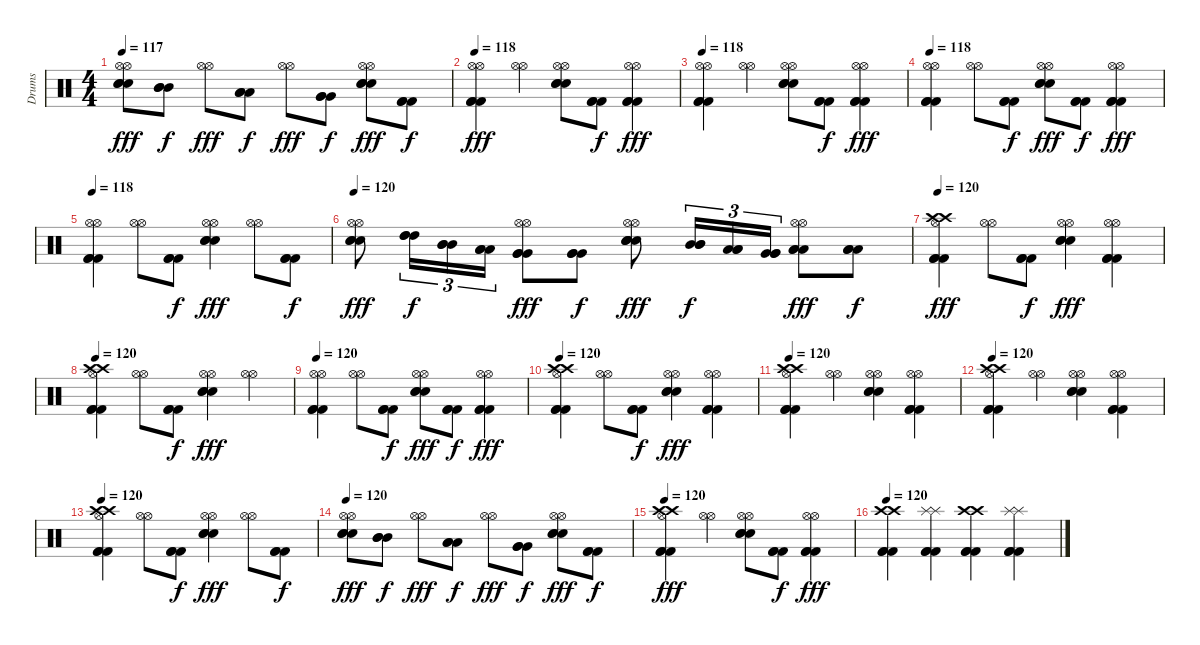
\track ("Drums" "Drums") {instrument percussion}
\staff {score}
\articulation defaults
\ts (4 4)
\tempo 117
\clef neutral
\ks c
("Hi-Hat (open)" "Hi-Hat (open)" "Snare (hit) 2" "Snare (hit) 2" "Snare (hit) 2").8{dy fff} ("Mid Tom (hit)" "Mid Tom (hit)" "Mid Tom (hit)").8{dy f} ("Hi-Hat (open)" "Hi-Hat (open)").8{dy fff} ("Low Tom (hit)" "Low Tom (hit)" "Low Tom (hit)").8{dy f} ("Hi-Hat (open)" "Hi-Hat (open)").8{dy fff} ("Very Low Tom (hit)" "Very Low Tom (hit)" "Very Low Tom (hit)").8{dy f} ("Hi-Hat (open)" "Hi-Hat (open)" "Snare (hit) 2" "Snare (hit) 2" "Snare (hit) 2").8{dy fff} ("Kick (hit) 2" "Kick (hit) 2" "Kick (hit) 2").8{dy f} |
\tempo 118
("Hi-Hat (open)" "Hi-Hat (open)" "Kick (hit) 2" "Kick (hit) 2" "Kick (hit) 2").4{dy fff} ("Hi-Hat (open)" "Hi-Hat (open)").4 ("Hi-Hat (open)" "Hi-Hat (open)" "Snare (hit) 2" "Snare (hit) 2" "Snare (hit) 2").8 ("Kick (hit) 2" "Kick (hit) 2" "Kick (hit) 2").8{dy f} ("Hi-Hat (open)" "Hi-Hat (open)" "Kick (hit) 2" "Kick (hit) 2" "Kick (hit) 2").4{dy fff} |
\tempo 118
("Hi-Hat (open)" "Hi-Hat (open)" "Kick (hit) 2" "Kick (hit) 2" "Kick (hit) 2").4 ("Hi-Hat (open)" "Hi-Hat (open)").4 ("Hi-Hat (open)" "Hi-Hat (open)" "Snare (hit) 2" "Snare (hit) 2" "Snare (hit) 2").8 ("Kick (hit) 2" "Kick (hit) 2" "Kick (hit) 2").8{dy f} ("Hi-Hat (open)" "Hi-Hat (open)" "Kick (hit) 2" "Kick (hit) 2" "Kick (hit) 2").4{dy fff} |
\tempo 118
("Hi-Hat (open)" "Hi-Hat (open)" "Kick (hit) 2" "Kick (hit) 2" "Kick (hit) 2").4 ("Hi-Hat (open)" "Hi-Hat (open)").8 ("Kick (hit) 2" "Kick (hit) 2" "Kick (hit) 2").8{dy f} ("Hi-Hat (open)" "Hi-Hat (open)" "Snare (hit) 2" "Snare (hit) 2" "Snare (hit) 2").8{dy fff} ("Kick (hit) 2" "Kick (hit) 2" "Kick (hit) 2").8{dy f} ("Hi-Hat (open)" "Hi-Hat (open)" "Kick (hit) 2" "Kick (hit) 2" "Kick (hit) 2").4{dy fff} |
\tempo 118
("Hi-Hat (open)" "Hi-Hat (open)" "Kick (hit) 2" "Kick (hit) 2" "Kick (hit) 2").4 ("Hi-Hat (open)" "Hi-Hat (open)").8 ("Kick (hit) 2" "Kick (hit) 2" "Kick (hit) 2").8{dy f} ("Hi-Hat (open)" "Hi-Hat (open)" "Snare (hit) 2" "Snare (hit) 2" "Snare (hit) 2").4{dy fff} ("Hi-Hat (open)" "Hi-Hat (open)").8 ("Kick (hit) 2" "Kick (hit) 2" "Kick (hit) 2").8{dy f} |
\tempo 120
("Hi-Hat (open)" "Hi-Hat (open)" "Snare (hit) 2" "Snare (hit) 2" "Snare (hit) 2").8{dy fff} ("High Tom (hit)" "High Tom (hit)" "High Tom (hit)").16{tu (3 2) dy f} ("Mid Tom (hit)" "Mid Tom (hit)" "Mid Tom (hit)").16{tu (3 2)} ("Low Tom (hit)" "Low Tom (hit)" "Low Tom (hit)").16{tu (3 2)} ("Hi-Hat (open)" "Hi-Hat (open)" "Very Low Tom (hit)" "Very Low Tom (hit)" "Very Low Tom (hit)").8{dy fff} ("Very Low Tom (hit)" "Very Low Tom (hit)" "Very Low Tom (hit)").8{dy f} ("Hi-Hat (open)" "Hi-Hat (open)" "Snare (hit) 2" "Snare (hit) 2" "Snare (hit) 2" "Snare (hit) 2").8{dy fff} ("Mid Tom (hit)" "Mid Tom (hit)" "Mid Tom (hit)").16{tu (3 2) dy f} ("Low Tom (hit)" "Low Tom (hit)" "Low Tom (hit)").16{tu (3 2)} ("Very Low Tom (hit)" "Very Low Tom (hit)" "Very Low Tom (hit)").16{tu (3 2)} ("Hi-Hat (open)" "Hi-Hat (open)" "Low Floor Tom (hit)" "Low Floor Tom (hit)" "Low Floor Tom (hit)").8{dy fff} ("Low Floor Tom (hit)" "Low Floor Tom (hit)" "Low Floor Tom (hit)").8{dy f} |
\tempo 120
("Hi-Hat (open)" "Crash high (hit)" "Crash high (hit)" "Kick (hit) 2" "Kick (hit) 2" "Kick (hit) 2").4{dy fff} ("Hi-Hat (open)" "Hi-Hat (open)").8 ("Kick (hit) 2" "Kick (hit) 2" "Kick (hit) 2").8{dy f} ("Hi-Hat (open)" "Hi-Hat (open)" "Snare (hit) 2" "Snare (hit) 2" "Snare (hit) 2").4{dy fff} ("Hi-Hat (open)" "Hi-Hat (open)" "Kick (hit) 2" "Kick (hit) 2" "Kick (hit) 2").4 |
\tempo 120
("Hi-Hat (open)" "Crash high (hit)" "Crash high (hit)" "Kick (hit) 2" "Kick (hit) 2" "Kick (hit) 2").4 ("Hi-Hat (open)" "Hi-Hat (open)").8 ("Kick (hit) 2" "Kick (hit) 2" "Kick (hit) 2").8{dy f} ("Hi-Hat (open)" "Hi-Hat (open)" "Snare (hit) 2" "Snare (hit) 2" "Snare (hit) 2").4{dy fff} ("Hi-Hat (open)" "Hi-Hat (open)").4 |
\tempo 120
("Hi-Hat (open)" "Hi-Hat (open)" "Kick (hit) 2" "Kick (hit) 2" "Kick (hit) 2").4 ("Hi-Hat (open)" "Hi-Hat (open)").8 ("Kick (hit) 2" "Kick (hit) 2" "Kick (hit) 2").8{dy f} ("Hi-Hat (open)" "Hi-Hat (open)" "Snare (hit) 2" "Snare (hit) 2" "Snare (hit) 2").8{dy fff} ("Kick (hit) 2" "Kick (hit) 2" "Kick (hit) 2").8{dy f} ("Hi-Hat (open)" "Hi-Hat (open)" "Kick (hit) 2" "Kick (hit) 2" "Kick (hit) 2").4{dy fff} |
\tempo 120
("Hi-Hat (open)" "Crash high (hit)" "Crash high (hit)" "Kick (hit) 2" "Kick (hit) 2" "Kick (hit) 2").4 ("Hi-Hat (open)" "Hi-Hat (open)").8 ("Kick (hit) 2" "Kick (hit) 2" "Kick (hit) 2").8{dy f} ("Hi-Hat (open)" "Hi-Hat (open)" "Snare (hit) 2" "Snare (hit) 2" "Snare (hit) 2").4{dy fff} ("Hi-Hat (open)" "Hi-Hat (open)" "Kick (hit) 2" "Kick (hit) 2" "Kick (hit) 2").4 |
\tempo 120
("Hi-Hat (open)" "Crash high (hit)" "Crash high (hit)" "Kick (hit) 2" "Kick (hit) 2" "Kick (hit) 2").4 ("Hi-Hat (open)" "Hi-Hat (open)").4 ("Hi-Hat (open)" "Hi-Hat (open)" "Snare (hit) 2" "Snare (hit) 2" "Snare (hit) 2").4 ("Hi-Hat (open)" "Hi-Hat (open)" "Kick (hit) 2" "Kick (hit) 2" "Kick (hit) 2").4 |
\tempo 120
("Hi-Hat (open)" "Crash high (hit)" "Crash high (hit)" "Kick (hit) 2" "Kick (hit) 2" "Kick (hit) 2").4 ("Hi-Hat (open)" "Hi-Hat (open)").4 ("Hi-Hat (open)" "Hi-Hat (open)" "Snare (hit) 2" "Snare (hit) 2" "Snare (hit) 2").4 ("Hi-Hat (open)" "Hi-Hat (open)" "Kick (hit) 2" "Kick (hit) 2" "Kick (hit) 2").4 |
\tempo 120
("Hi-Hat (open)" "Crash high (hit)" "Crash high (hit)" "Kick (hit) 2" "Kick (hit) 2" "Kick (hit) 2").4 ("Hi-Hat (open)" "Hi-Hat (open)").8 ("Kick (hit) 2" "Kick (hit) 2" "Kick (hit) 2").8{dy f} ("Hi-Hat (open)" "Hi-Hat (open)" "Snare (hit) 2" "Snare (hit) 2" "Snare (hit) 2").4{dy fff} ("Hi-Hat (open)" "Hi-Hat (open)").8 ("Kick (hit) 2" "Kick (hit) 2" "Kick (hit) 2").8{dy f} |
\tempo 120
("Hi-Hat (open)" "Hi-Hat (open)" "Snare (hit) 2" "Snare (hit) 2" "Snare (hit) 2").8{dy fff} ("Mid Tom (hit)" "Mid Tom (hit)" "Mid Tom (hit)").8{dy f} ("Hi-Hat (open)" "Hi-Hat (open)").8{dy fff} ("Low Tom (hit)" "Low Tom (hit)" "Low Tom (hit)").8{dy f} ("Hi-Hat (open)" "Hi-Hat (open)").8{dy fff} ("Very Low Tom (hit)" "Very Low Tom (hit)" "Very Low Tom (hit)").8{dy f} ("Hi-Hat (open)" "Hi-Hat (open)" "Snare (hit) 2" "Snare (hit) 2" "Snare (hit) 2").8{dy fff} ("Kick (hit) 2" "Kick (hit) 2" "Kick (hit) 2").8{dy f} |
\tempo 120
("Hi-Hat (open)" "Crash high (hit)" "Crash high (hit)" "Kick (hit) 2" "Kick (hit) 2" "Kick (hit) 2").4{dy fff} ("Hi-Hat (open)" "Hi-Hat (open)").4 ("Hi-Hat (open)" "Hi-Hat (open)" "Snare (hit) 2" "Snare (hit) 2" "Snare (hit) 2").8 ("Kick (hit) 2" "Kick (hit) 2" "Kick (hit) 2").8{dy f} ("Hi-Hat (open)" "Hi-Hat (open)" "Kick (hit) 2" "Kick (hit) 2" "Kick (hit) 2").4{dy fff} |
\tempo 120
("Crash high (hit)" "Crash high (hit)" "Kick (hit) 2" "Kick (hit) 2" "Kick (hit) 2").4 ("Splash (hit)" "Splash (hit)" "Kick (hit) 2" "Kick (hit) 2" "Kick (hit) 2").4 ("Crash high (hit)" "Crash high (hit)" "Kick (hit) 2" "Kick (hit) 2" "Kick (hit) 2").4 ("Splash (hit)" "Splash (hit)" "Kick (hit) 2" "Kick (hit) 2" "Kick (hit) 2").4
